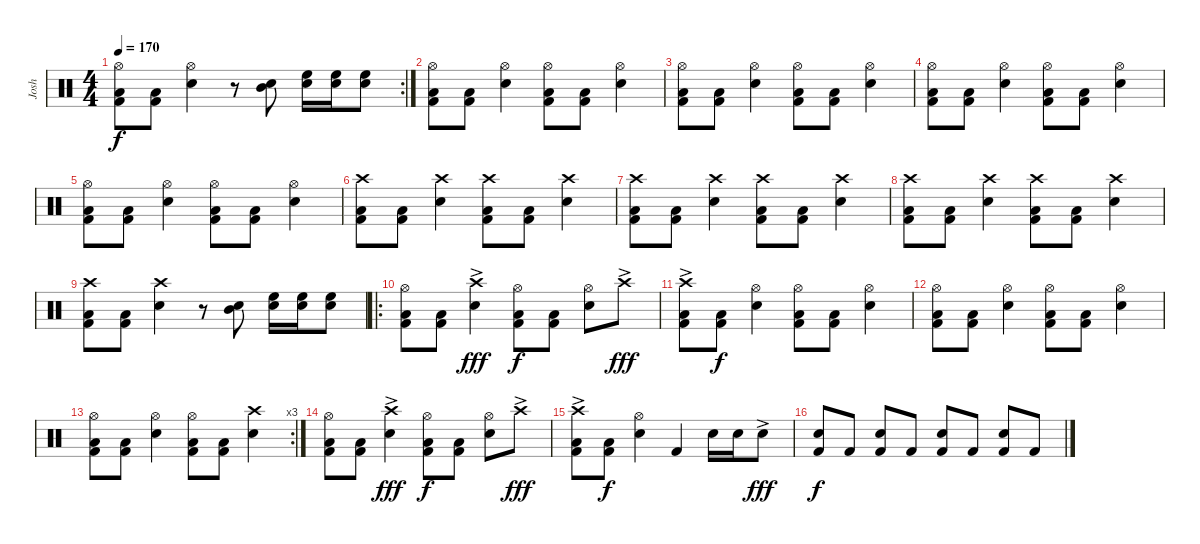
\track ("Josh" "Josh") {instrument percussion}
\staff {score}
\articulation defaults
\rc 2
\ts (4 4)
\tempo 170
\clef neutral
\ks c
("Hi-Hat (open)" "Low Tom (hit)" "Kick (hit) 2").8{dy f} ("Low Tom (hit)" "Kick (hit) 2").8 ("Hi-Hat (open)" "Snare (hit) 2").4 r.8 ("Mid Tom (hit)" "Snare (hit) 2").8 ("High Floor Tom (hit)" "Snare (hit) 2").16 ("High Floor Tom (hit)" "Snare (hit) 2").16 ("High Floor Tom (hit)" "Snare (hit) 2").8 |
("Hi-Hat (open)" "Low Tom (hit)" "Kick (hit) 2").8 ("Low Tom (hit)" "Kick (hit) 2").8 ("Hi-Hat (open)" "Snare (hit) 2").4 ("Hi-Hat (open)" "Low Tom (hit)" "Kick (hit) 2").8 ("Low Tom (hit)" "Kick (hit) 2").8 ("Hi-Hat (open)" "Snare (hit) 2").4 |
("Hi-Hat (open)" "Low Tom (hit)" "Kick (hit) 2").8 ("Low Tom (hit)" "Kick (hit) 2").8 ("Hi-Hat (open)" "Snare (hit) 2").4 ("Hi-Hat (open)" "Low Tom (hit)" "Kick (hit) 2").8 ("Low Tom (hit)" "Kick (hit) 2").8 ("Hi-Hat (open)" "Snare (hit) 2").4 |
("Hi-Hat (open)" "Low Tom (hit)" "Kick (hit) 2").8 ("Low Tom (hit)" "Kick (hit) 2").8 ("Hi-Hat (open)" "Snare (hit) 2").4 ("Hi-Hat (open)" "Low Tom (hit)" "Kick (hit) 2").8 ("Low Tom (hit)" "Kick (hit) 2").8 ("Hi-Hat (open)" "Snare (hit) 2").4 |
("Hi-Hat (open)" "Low Tom (hit)" "Kick (hit) 2").8 ("Low Tom (hit)" "Kick (hit) 2").8 ("Hi-Hat (open)" "Snare (hit) 2").4 ("Hi-Hat (open)" "Low Tom (hit)" "Kick (hit) 2").8 ("Low Tom (hit)" "Kick (hit) 2").8 ("Hi-Hat (open)" "Snare (hit) 2").4 |
("Crash high (hit)" "Low Tom (hit)" "Kick (hit) 2").8 ("Low Tom (hit)" "Kick (hit) 2").8 ("Crash high (hit)" "Snare (hit) 2").4 ("Crash high (hit)" "Low Tom (hit)" "Kick (hit) 2").8 ("Low Tom (hit)" "Kick (hit) 2").8 ("Crash high (hit)" "Snare (hit) 2").4 |
("Crash high (hit)" "Low Tom (hit)" "Kick (hit) 2").8 ("Low Tom (hit)" "Kick (hit) 2").8 ("Crash high (hit)" "Snare (hit) 2").4 ("Crash high (hit)" "Low Tom (hit)" "Kick (hit) 2").8 ("Low Tom (hit)" "Kick (hit) 2").8 ("Crash high (hit)" "Snare (hit) 2").4 |
("Crash high (hit)" "Low Tom (hit)" "Kick (hit) 2").8 ("Low Tom (hit)" "Kick (hit) 2").8 ("Crash high (hit)" "Snare (hit) 2").4 ("Crash high (hit)" "Low Tom (hit)" "Kick (hit) 2").8 ("Low Tom (hit)" "Kick (hit) 2").8 ("Crash high (hit)" "Snare (hit) 2").4 |
("Crash high (hit)" "Low Tom (hit)" "Kick (hit) 2").8 ("Low Tom (hit)" "Kick (hit) 2").8 ("Crash high (hit)" "Snare (hit) 2").4 r.8 ("Mid Tom (hit)" "Snare (hit) 2").8 ("High Floor Tom (hit)" "Snare (hit) 2").16 ("High Floor Tom (hit)" "Snare (hit) 2").16 ("High Floor Tom (hit)" "Snare (hit) 2").8 |
\ro
("Hi-Hat (open)" "Low Tom (hit)" "Kick (hit) 2").8 ("Low Tom (hit)" "Kick (hit) 2").8 ("Crash high (hit)"{ac} "Snare (hit) 2").4{dy fff} ("Hi-Hat (open)" "Low Tom (hit)" "Kick (hit) 2").8{dy f} ("Low Tom (hit)" "Kick (hit) 2").8 ("Hi-Hat (open)" "Snare (hit) 2").8 "Crash high (hit)"{ac}.8{dy fff} |
("Crash high (hit)"{ac} "Low Tom (hit)" "Kick (hit) 2").8 ("Low Tom (hit)" "Kick (hit) 2").8{dy f} ("Hi-Hat (open)" "Snare (hit) 2").4 ("Hi-Hat (open)" "Low Tom (hit)" "Kick (hit) 2").8 ("Low Tom (hit)" "Kick (hit) 2").8 ("Hi-Hat (open)" "Snare (hit) 2").4 |
("Hi-Hat (open)" "Low Tom (hit)" "Kick (hit) 2").8 ("Low Tom (hit)" "Kick (hit) 2").8 ("Hi-Hat (open)" "Snare (hit) 2").4 ("Hi-Hat (open)" "Low Tom (hit)" "Kick (hit) 2").8 ("Low Tom (hit)" "Kick (hit) 2").8 ("Hi-Hat (open)" "Snare (hit) 2").4 |
\rc 3
("Hi-Hat (open)" "Low Tom (hit)" "Kick (hit) 2").8 ("Low Tom (hit)" "Kick (hit) 2").8 ("Hi-Hat (open)" "Snare (hit) 2").4 ("Hi-Hat (open)" "Low Tom (hit)" "Kick (hit) 2").8 ("Low Tom (hit)" "Kick (hit) 2").8 ("Crash high (hit)" "Snare (hit) 2").4 |
("Hi-Hat (open)" "Low Tom (hit)" "Kick (hit) 2").8 ("Low Tom (hit)" "Kick (hit) 2").8 ("Crash high (hit)"{ac} "Snare (hit) 2").4{dy fff} ("Hi-Hat (open)" "Low Tom (hit)" "Kick (hit) 2").8{dy f} ("Low Tom (hit)" "Kick (hit) 2").8 ("Hi-Hat (open)" "Snare (hit) 2").8 "Crash high (hit)"{ac}.8{dy fff} |
("Crash high (hit)"{ac} "Low Tom (hit)" "Kick (hit) 2").8 ("Low Tom (hit)" "Kick (hit) 2").8{dy f} ("Hi-Hat (open)" "Snare (hit) 2").4 "Kick (hit) 2".4 "Snare (hit) 2".16 "Snare (hit) 2".16 "Snare (hit) 2"{ac}.8{dy fff} |
("Snare (hit) 2" "Kick (hit) 2").8{dy f} "Kick (hit) 2".8 ("Snare (hit) 2" "Kick (hit) 2").8 "Kick (hit) 2".8 ("Snare (hit) 2" "Kick (hit) 2").8 "Kick (hit) 2".8 ("Snare (hit) 2" "Kick (hit) 2").8 "Kick (hit) 2".8
